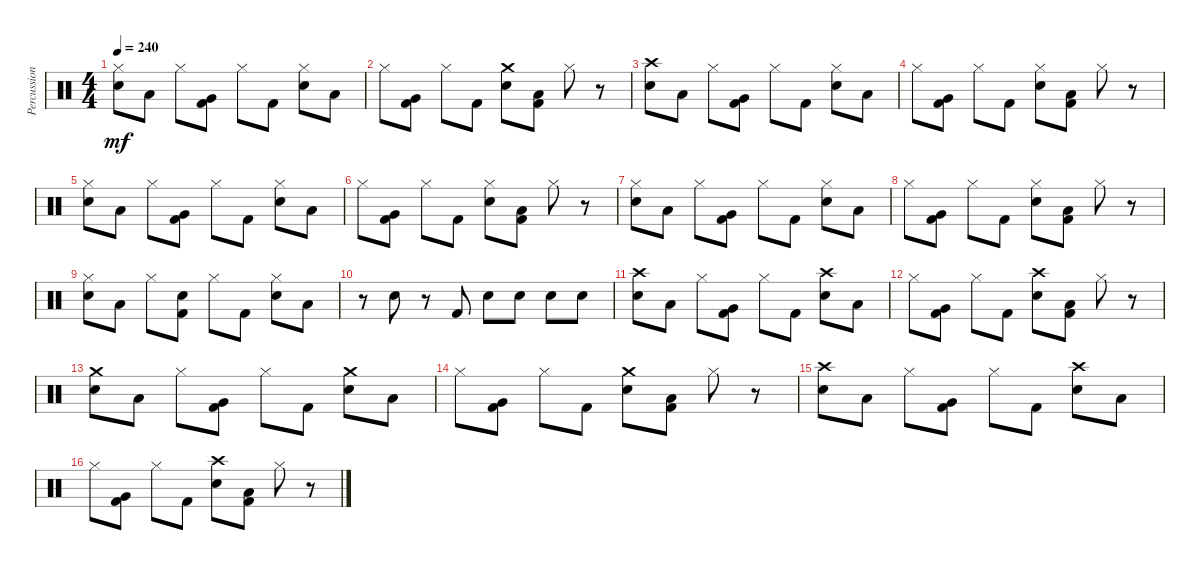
\track ("Percussion" "Percussion") {instrument percussion}
\staff {score}
\articulation defaults
\ts (4 4)
\tempo 240
\clef neutral
\ks c
("Electric Snare (hit)" "Hi-Hat (closed)").8{dy mf} "Low Tom (hit)".8 "Hi-Hat (closed)".8 ("Very Low Tom (hit)" "Kick (hit) 2").8 "Hi-Hat (closed)".8 "Kick (hit) 2".8 ("Electric Snare (hit)" "Hi-Hat (closed)").8 "Low Tom (hit)".8 |
"Hi-Hat (closed)".8 ("Kick (hit) 2" "Very Low Tom (hit)").8 "Hi-Hat (closed)".8 "Kick (hit) 2".8 ("Electric Snare (hit)" "Crash medium (hit)").8 ("Low Tom (hit)" "Kick (hit) 2").8 "Hi-Hat (closed)".8 r.8 |
("Electric Snare (hit)" "Crash high (hit)").8 "Low Tom (hit)".8 "Hi-Hat (closed)".8 ("Very Low Tom (hit)" "Kick (hit) 2").8 "Hi-Hat (closed)".8 "Kick (hit) 2".8 ("Electric Snare (hit)" "Hi-Hat (closed)").8 "Low Tom (hit)".8 |
"Hi-Hat (closed)".8 ("Kick (hit) 2" "Very Low Tom (hit)").8 "Hi-Hat (closed)".8 "Kick (hit) 2".8 ("Electric Snare (hit)" "Hi-Hat (closed)").8 ("Low Tom (hit)" "Kick (hit) 2").8 "Hi-Hat (closed)".8 r.8 |
("Electric Snare (hit)" "Hi-Hat (closed)").8 "Low Tom (hit)".8 "Hi-Hat (closed)".8 ("Very Low Tom (hit)" "Kick (hit) 2").8 "Hi-Hat (closed)".8 "Kick (hit) 2".8 ("Electric Snare (hit)" "Hi-Hat (closed)").8 "Low Tom (hit)".8 |
"Hi-Hat (closed)".8 ("Kick (hit) 2" "Very Low Tom (hit)").8 "Hi-Hat (closed)".8 "Kick (hit) 2".8 ("Electric Snare (hit)" "Hi-Hat (closed)").8 ("Low Tom (hit)" "Kick (hit) 2").8 "Hi-Hat (closed)".8 r.8 |
("Electric Snare (hit)" "Hi-Hat (closed)").8 "Low Tom (hit)".8 "Hi-Hat (closed)".8 ("Very Low Tom (hit)" "Kick (hit) 2").8 "Hi-Hat (closed)".8 "Kick (hit) 2".8 ("Electric Snare (hit)" "Hi-Hat (closed)").8 "Low Tom (hit)".8 |
"Hi-Hat (closed)".8 ("Kick (hit) 2" "Very Low Tom (hit)").8 "Hi-Hat (closed)".8 "Kick (hit) 2".8 ("Electric Snare (hit)" "Hi-Hat (closed)").8 ("Low Tom (hit)" "Kick (hit) 2").8 "Hi-Hat (closed)".8 r.8 |
("Electric Snare (hit)" "Hi-Hat (closed)").8 "Low Tom (hit)".8 "Hi-Hat (closed)".8 ("Electric Snare (hit)" "Kick (hit) 2").8 "Hi-Hat (closed)".8 "Kick (hit) 2".8 ("Electric Snare (hit)" "Hi-Hat (closed)").8 "Low Tom (hit)".8 |
r.8 "Electric Snare (hit)".8 r.8 "Kick (hit) 2".8 "Electric Snare (hit)".8 "Electric Snare (hit)".8 "Electric Snare (hit)".8 "Electric Snare (hit)".8 |
("Electric Snare (hit)" "Crash high (hit)").8 "Low Tom (hit)".8 "Hi-Hat (closed)".8 ("Very Low Tom (hit)" "Kick (hit) 2").8 "Hi-Hat (closed)".8 "Kick (hit) 2".8 ("Electric Snare (hit)" "Crash high (hit)").8 "Low Tom (hit)".8 |
"Hi-Hat (closed)".8 ("Kick (hit) 2" "Very Low Tom (hit)").8 "Hi-Hat (closed)".8 "Kick (hit) 2".8 ("Electric Snare (hit)" "Crash high (hit)").8 ("Low Tom (hit)" "Kick (hit) 2").8 "Hi-Hat (closed)".8 r.8 |
("Electric Snare (hit)" "Crash medium (hit)").8 "Low Tom (hit)".8 "Hi-Hat (closed)".8 ("Very Low Tom (hit)" "Kick (hit) 2").8 "Hi-Hat (closed)".8 "Kick (hit) 2".8 ("Electric Snare (hit)" "Crash medium (hit)").8 "Low Tom (hit)".8 |
"Hi-Hat (closed)".8 ("Kick (hit) 2" "Very Low Tom (hit)").8 "Hi-Hat (closed)".8 "Kick (hit) 2".8 ("Electric Snare (hit)" "Crash medium (hit)").8 ("Low Tom (hit)" "Kick (hit) 2").8 "Hi-Hat (closed)".8 r.8 |
("Electric Snare (hit)" "Crash high (hit)").8 "Low Tom (hit)".8 "Hi-Hat (closed)".8 ("Very Low Tom (hit)" "Kick (hit) 2").8 "Hi-Hat (closed)".8 "Kick (hit) 2".8 ("Electric Snare (hit)" "Crash high (hit)").8 "Low Tom (hit)".8 |
"Hi-Hat (closed)".8 ("Kick (hit) 2" "Very Low Tom (hit)").8 "Hi-Hat (closed)".8 "Kick (hit) 2".8 ("Electric Snare (hit)" "Crash high (hit)").8 ("Low Tom (hit)" "Kick (hit) 2").8 "Hi-Hat (closed)".8 r.8
